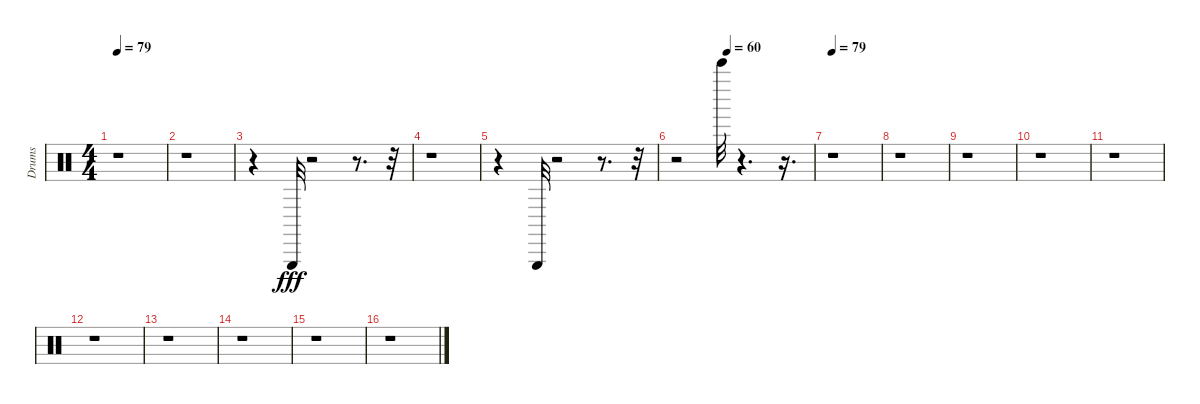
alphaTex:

\track ("Drums" "Drums") {instrument percussion}
\staff {score}
\articulation defaults
\ts (4 4)
\tempo 79
\clef neutral
\ks c
r.1{dy fff} |
r.1 |
r.4 "Triangle (hit)".32 r.2 r.8{d} r.32 |
r.1 |
r.4 "Triangle (hit)".32 r.2 r.8{d} r.32 |
\tempo (60 0.375)
r.2 "Bell Tree (hit)".32 r.4{d} r.16{d} |
\tempo 79
r.1 |
r.1 |
r.1 |
r.1 |
r.1 |
r.1 |
r.1 |
r.1 |
r.1 |
r.1
